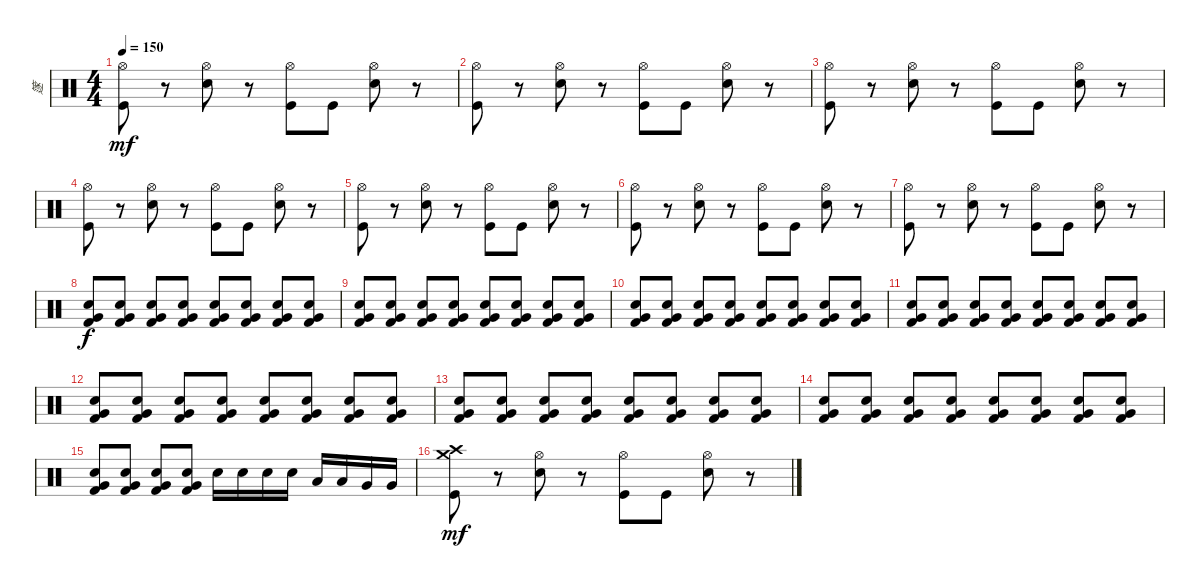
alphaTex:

\track ("篴" "篴") {instrument percussion}
\staff {score}
\articulation defaults
\ts (4 4)
\tempo 150
\clef neutral
\ks c
("Hi-Hat (open)" "Kick (hit)").8{dy mf} r.8 ("Hi-Hat (open)" "Snare (hit) 2").8 r.8 ("Hi-Hat (open)" "Kick (hit)").8 "Kick (hit)".8 ("Hi-Hat (open)" "Snare (hit) 2").8 r.8 |
("Hi-Hat (open)" "Kick (hit)").8 r.8 ("Hi-Hat (open)" "Snare (hit) 2").8 r.8 ("Hi-Hat (open)" "Kick (hit)").8 "Kick (hit)".8 ("Hi-Hat (open)" "Snare (hit) 2").8 r.8 |
("Hi-Hat (open)" "Kick (hit)").8 r.8 ("Hi-Hat (open)" "Snare (hit) 2").8 r.8 ("Hi-Hat (open)" "Kick (hit)").8 "Kick (hit)".8 ("Hi-Hat (open)" "Snare (hit) 2").8 r.8 |
("Hi-Hat (open)" "Kick (hit)").8 r.8 ("Hi-Hat (open)" "Snare (hit) 2").8 r.8 ("Hi-Hat (open)" "Kick (hit)").8 "Kick (hit)".8 ("Hi-Hat (open)" "Snare (hit) 2").8 r.8 |
("Hi-Hat (open)" "Kick (hit)").8 r.8 ("Hi-Hat (open)" "Snare (hit) 2").8 r.8 ("Hi-Hat (open)" "Kick (hit)").8 "Kick (hit)".8 ("Hi-Hat (open)" "Snare (hit) 2").8 r.8 |
("Hi-Hat (open)" "Kick (hit)").8 r.8 ("Hi-Hat (open)" "Snare (hit) 2").8 r.8 ("Hi-Hat (open)" "Kick (hit)").8 "Kick (hit)".8 ("Hi-Hat (open)" "Snare (hit) 2").8 r.8 |
("Hi-Hat (open)" "Kick (hit)").8 r.8 ("Hi-Hat (open)" "Snare (hit) 2").8 r.8 ("Hi-Hat (open)" "Kick (hit)").8 "Kick (hit)".8 ("Hi-Hat (open)" "Snare (hit) 2").8 r.8 |
("Electric Snare (hit)" "Very Low Tom (hit)" "Kick (hit) 2").8{dy f} ("Electric Snare (hit)" "Very Low Tom (hit)" "Kick (hit) 2").8 ("Electric Snare (hit)" "Very Low Tom (hit)" "Kick (hit) 2").8 ("Electric Snare (hit)" "Very Low Tom (hit)" "Kick (hit) 2").8 ("Electric Snare (hit)" "Very Low Tom (hit)" "Kick (hit) 2").8 ("Electric Snare (hit)" "Very Low Tom (hit)" "Kick (hit) 2").8 ("Electric Snare (hit)" "Very Low Tom (hit)" "Kick (hit) 2").8 ("Electric Snare (hit)" "Very Low Tom (hit)" "Kick (hit) 2").8 |
("Electric Snare (hit)" "Very Low Tom (hit)" "Kick (hit) 2").8 ("Electric Snare (hit)" "Very Low Tom (hit)" "Kick (hit) 2").8 ("Electric Snare (hit)" "Very Low Tom (hit)" "Kick (hit) 2").8 ("Electric Snare (hit)" "Very Low Tom (hit)" "Kick (hit) 2").8 ("Electric Snare (hit)" "Very Low Tom (hit)" "Kick (hit) 2").8 ("Electric Snare (hit)" "Very Low Tom (hit)" "Kick (hit) 2").8 ("Electric Snare (hit)" "Very Low Tom (hit)" "Kick (hit) 2").8 ("Electric Snare (hit)" "Very Low Tom (hit)" "Kick (hit) 2").8 |
("Electric Snare (hit)" "Very Low Tom (hit)" "Kick (hit) 2").8 ("Electric Snare (hit)" "Very Low Tom (hit)" "Kick (hit) 2").8 ("Electric Snare (hit)" "Very Low Tom (hit)" "Kick (hit) 2").8 ("Electric Snare (hit)" "Very Low Tom (hit)" "Kick (hit) 2").8 ("Electric Snare (hit)" "Very Low Tom (hit)" "Kick (hit) 2").8 ("Electric Snare (hit)" "Very Low Tom (hit)" "Kick (hit) 2").8 ("Electric Snare (hit)" "Very Low Tom (hit)" "Kick (hit) 2").8 ("Electric Snare (hit)" "Very Low Tom (hit)" "Kick (hit) 2").8 |
("Electric Snare (hit)" "Very Low Tom (hit)" "Kick (hit) 2").8 ("Electric Snare (hit)" "Very Low Tom (hit)" "Kick (hit) 2").8 ("Electric Snare (hit)" "Very Low Tom (hit)" "Kick (hit) 2").8 ("Electric Snare (hit)" "Very Low Tom (hit)" "Kick (hit) 2").8 ("Electric Snare (hit)" "Very Low Tom (hit)" "Kick (hit) 2").8 ("Electric Snare (hit)" "Very Low Tom (hit)" "Kick (hit) 2").8 ("Electric Snare (hit)" "Very Low Tom (hit)" "Kick (hit) 2").8 ("Electric Snare (hit)" "Very Low Tom (hit)" "Kick (hit) 2").8 |
("Electric Snare (hit)" "Very Low Tom (hit)" "Kick (hit) 2").8 ("Electric Snare (hit)" "Very Low Tom (hit)" "Kick (hit) 2").8 ("Electric Snare (hit)" "Very Low Tom (hit)" "Kick (hit) 2").8 ("Electric Snare (hit)" "Very Low Tom (hit)" "Kick (hit) 2").8 ("Electric Snare (hit)" "Very Low Tom (hit)" "Kick (hit) 2").8 ("Electric Snare (hit)" "Very Low Tom (hit)" "Kick (hit) 2").8 ("Electric Snare (hit)" "Very Low Tom (hit)" "Kick (hit) 2").8 ("Electric Snare (hit)" "Very Low Tom (hit)" "Kick (hit) 2").8 |
("Electric Snare (hit)" "Very Low Tom (hit)" "Kick (hit) 2").8 ("Electric Snare (hit)" "Very Low Tom (hit)" "Kick (hit) 2").8 ("Electric Snare (hit)" "Very Low Tom (hit)" "Kick (hit) 2").8 ("Electric Snare (hit)" "Very Low Tom (hit)" "Kick (hit) 2").8 ("Electric Snare (hit)" "Very Low Tom (hit)" "Kick (hit) 2").8 ("Electric Snare (hit)" "Very Low Tom (hit)" "Kick (hit) 2").8 ("Electric Snare (hit)" "Very Low Tom (hit)" "Kick (hit) 2").8 ("Electric Snare (hit)" "Very Low Tom (hit)" "Kick (hit) 2").8 |
("Electric Snare (hit)" "Very Low Tom (hit)" "Kick (hit) 2").8 ("Electric Snare (hit)" "Very Low Tom (hit)" "Kick (hit) 2").8 ("Electric Snare (hit)" "Very Low Tom (hit)" "Kick (hit) 2").8 ("Electric Snare (hit)" "Very Low Tom (hit)" "Kick (hit) 2").8 ("Electric Snare (hit)" "Very Low Tom (hit)" "Kick (hit) 2").8 ("Electric Snare (hit)" "Very Low Tom (hit)" "Kick (hit) 2").8 ("Electric Snare (hit)" "Very Low Tom (hit)" "Kick (hit) 2").8 ("Electric Snare (hit)" "Very Low Tom (hit)" "Kick (hit) 2").8 |
("Electric Snare (hit)" "Very Low Tom (hit)" "Kick (hit) 2").8 ("Electric Snare (hit)" "Very Low Tom (hit)" "Kick (hit) 2").8 ("Electric Snare (hit)" "Very Low Tom (hit)" "Kick (hit) 2").8 ("Electric Snare (hit)" "Very Low Tom (hit)" "Kick (hit) 2").8 "Electric Snare (hit)".16 "Electric Snare (hit)".16 "Electric Snare (hit)".16 "Electric Snare (hit)".16 "Low Tom (hit)".16 "Low Tom (hit)".16 "Very Low Tom (hit)".16 "Very Low Tom (hit)".16 |
("Crash high (hit)" "Crash medium (hit)" "Kick (hit)").8{dy mf} r.8 ("Hi-Hat (open)" "Snare (hit) 2").8 r.8 ("Hi-Hat (open)" "Kick (hit)").8 "Kick (hit)".8 ("Hi-Hat (open)" "Snare (hit) 2").8 r.8
